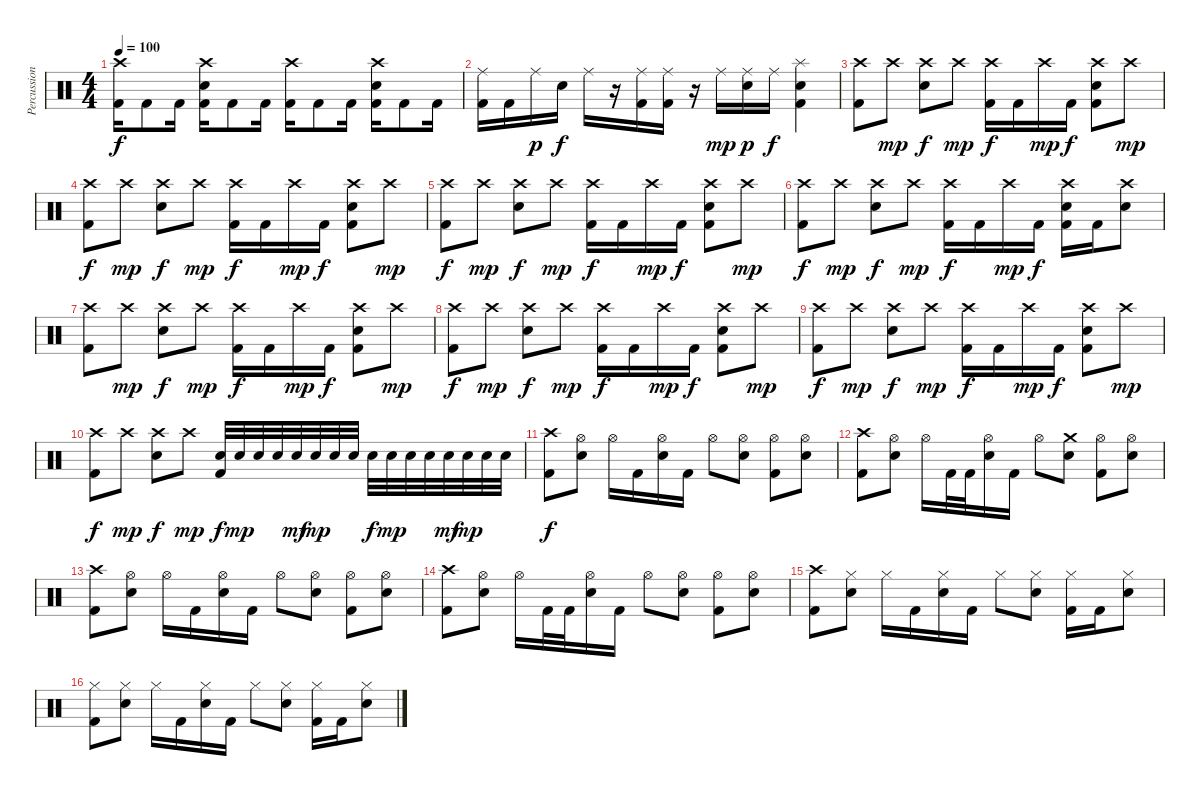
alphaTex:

\track ("Percussion" "Percussion") {instrument percussion}
\staff {score}
\articulation defaults
\ts (4 4)
\tempo 100
\clef neutral
\ks c
("Crash high (hit)" "Kick (hit) 2").16{dy f} "Kick (hit) 2".8 "Kick (hit) 2".16 ("Crash high (hit)" "Electric Snare (hit)" "Kick (hit) 2").16 "Kick (hit) 2".8 "Kick (hit) 2".16 ("Crash high (hit)" "Kick (hit) 2").16 "Kick (hit) 2".8 "Kick (hit) 2".16 ("Crash high (hit)" "Electric Snare (hit)" "Kick (hit) 2").16 "Kick (hit) 2".8 "Kick (hit) 2".16 |
("Ride (middle)" "Kick (hit) 2").16 "Kick (hit) 2".16 "Ride (middle)".16{dy p} "Electric Snare (hit)".16{dy f} "Ride (middle)".16 r.16 ("Ride (middle)" "Kick (hit) 2").16 ("Ride (middle)" "Kick (hit) 2").16 r.16 "Ride (middle)".16{dy mp} ("Ride (middle)" "Electric Snare (hit)").16{dy p} "Ride (middle)".16{dy f} ("Splash (hit)" "Electric Snare (hit)" "Kick (hit) 2").4 |
("Crash high (hit)" "Kick (hit) 2").8 "Crash high (hit)".8{dy mp} ("Crash high (hit)" "Electric Snare (hit)").8{dy f} "Crash high (hit)".8{dy mp} ("Crash high (hit)" "Kick (hit) 2").16{dy f} "Kick (hit) 2".16 "Crash high (hit)".16{dy mp} "Kick (hit) 2".16{dy f} ("Crash high (hit)" "Electric Snare (hit)" "Kick (hit) 2").8 "Crash high (hit)".8{dy mp} |
("Crash high (hit)" "Kick (hit) 2").8{dy f} "Crash high (hit)".8{dy mp} ("Crash high (hit)" "Electric Snare (hit)").8{dy f} "Crash high (hit)".8{dy mp} ("Crash high (hit)" "Kick (hit) 2").16{dy f} "Kick (hit) 2".16 "Crash high (hit)".16{dy mp} "Kick (hit) 2".16{dy f} ("Crash high (hit)" "Electric Snare (hit)" "Kick (hit) 2").8 "Crash high (hit)".8{dy mp} |
("Crash high (hit)" "Kick (hit) 2").8{dy f} "Crash high (hit)".8{dy mp} ("Crash high (hit)" "Electric Snare (hit)").8{dy f} "Crash high (hit)".8{dy mp} ("Crash high (hit)" "Kick (hit) 2").16{dy f} "Kick (hit) 2".16 "Crash high (hit)".16{dy mp} "Kick (hit) 2".16{dy f} ("Crash high (hit)" "Electric Snare (hit)" "Kick (hit) 2").8 "Crash high (hit)".8{dy mp} |
("Crash high (hit)" "Kick (hit) 2").8{dy f} "Crash high (hit)".8{dy mp} ("Crash high (hit)" "Electric Snare (hit)").8{dy f} "Crash high (hit)".8{dy mp} ("Crash high (hit)" "Kick (hit) 2").16{dy f} "Kick (hit) 2".16 "Crash high (hit)".16{dy mp} "Kick (hit) 2".16{dy f} ("Crash high (hit)" "Electric Snare (hit)" "Kick (hit) 2").16 "Kick (hit) 2".16 ("Crash high (hit)" "Electric Snare (hit)").8 |
("Crash high (hit)" "Kick (hit) 2").8 "Crash high (hit)".8{dy mp} ("Crash high (hit)" "Electric Snare (hit)").8{dy f} "Crash high (hit)".8{dy mp} ("Crash high (hit)" "Kick (hit) 2").16{dy f} "Kick (hit) 2".16 "Crash high (hit)".16{dy mp} "Kick (hit) 2".16{dy f} ("Crash high (hit)" "Electric Snare (hit)" "Kick (hit) 2").8 "Crash high (hit)".8{dy mp} |
("Crash high (hit)" "Kick (hit) 2").8{dy f} "Crash high (hit)".8{dy mp} ("Crash high (hit)" "Electric Snare (hit)").8{dy f} "Crash high (hit)".8{dy mp} ("Crash high (hit)" "Kick (hit) 2").16{dy f} "Kick (hit) 2".16 "Crash high (hit)".16{dy mp} "Kick (hit) 2".16{dy f} ("Crash high (hit)" "Electric Snare (hit)" "Kick (hit) 2").8 "Crash high (hit)".8{dy mp} |
("Crash high (hit)" "Kick (hit) 2").8{dy f} "Crash high (hit)".8{dy mp} ("Crash high (hit)" "Electric Snare (hit)").8{dy f} "Crash high (hit)".8{dy mp} ("Crash high (hit)" "Kick (hit) 2").16{dy f} "Kick (hit) 2".16 "Crash high (hit)".16{dy mp} "Kick (hit) 2".16{dy f} ("Crash high (hit)" "Electric Snare (hit)" "Kick (hit) 2").8 "Crash high (hit)".8{dy mp} |
("Crash high (hit)" "Kick (hit) 2").8{dy f} "Crash high (hit)".8{dy mp} ("Crash high (hit)" "Electric Snare (hit)").8{dy f} "Crash high (hit)".8{dy mp} ("Electric Snare (hit)" "Kick (hit) 2").32{dy f} "Electric Snare (hit)".32{dy mp} "Electric Snare (hit)".32 "Electric Snare (hit)".32 "Electric Snare (hit)".32{dy mf} "Electric Snare (hit)".32{dy mp} "Electric Snare (hit)".32 "Electric Snare (hit)".32 "Electric Snare (hit)".32{dy f} "Electric Snare (hit)".32{dy mp} "Electric Snare (hit)".32 "Electric Snare (hit)".32 "Electric Snare (hit)".32{dy mf} "Electric Snare (hit)".32{dy mp} "Electric Snare (hit)".32 "Electric Snare (hit)".32 |
("Crash high (hit)" "Kick (hit) 2").8{dy f} ("Hi-Hat (open)" "Electric Snare (hit)").8 "Hi-Hat (open)".16 "Kick (hit) 2".16 ("Hi-Hat (open)" "Electric Snare (hit)").16 "Kick (hit) 2".16 "Hi-Hat (open)".8 ("Hi-Hat (open)" "Electric Snare (hit)").8 ("Hi-Hat (open)" "Kick (hit) 2").8 ("Hi-Hat (open)" "Electric Snare (hit)").8 |
("Crash high (hit)" "Kick (hit) 2").8 ("Hi-Hat (open)" "Electric Snare (hit)").8 "Hi-Hat (open)".16 "Kick (hit) 2".32 "Kick (hit) 2".32 ("Hi-Hat (open)" "Electric Snare (hit)").16 "Kick (hit) 2".16 "Hi-Hat (open)".8 ("Crash medium (hit)" "Electric Snare (hit)").8 ("Hi-Hat (open)" "Kick (hit) 2").8 ("Hi-Hat (open)" "Electric Snare (hit)").8 |
("Crash high (hit)" "Kick (hit) 2").8 ("Hi-Hat (open)" "Electric Snare (hit)").8 "Hi-Hat (open)".16 "Kick (hit) 2".16 ("Hi-Hat (open)" "Electric Snare (hit)").16 "Kick (hit) 2".16 "Hi-Hat (open)".8 ("Hi-Hat (open)" "Electric Snare (hit)").8 ("Hi-Hat (open)" "Kick (hit) 2").8 ("Hi-Hat (open)" "Electric Snare (hit)").8 |
("Crash high (hit)" "Kick (hit) 2").8 ("Hi-Hat (open)" "Electric Snare (hit)").8 "Hi-Hat (open)".16 "Kick (hit) 2".32 "Kick (hit) 2".32 ("Hi-Hat (open)" "Electric Snare (hit)").16 "Kick (hit) 2".16 "Hi-Hat (open)".8 ("Hi-Hat (open)" "Electric Snare (hit)").8 ("Hi-Hat (open)" "Kick (hit) 2").8 ("Hi-Hat (open)" "Electric Snare (hit)").8 |
("Crash high (hit)" "Kick (hit) 2").8 ("Hi-Hat (closed)" "Electric Snare (hit)").8 "Hi-Hat (closed)".16 "Kick (hit) 2".16 ("Hi-Hat (closed)" "Electric Snare (hit)").16 "Kick (hit) 2".16 "Hi-Hat (closed)".8 ("Hi-Hat (closed)" "Electric Snare (hit)").8 ("Hi-Hat (closed)" "Kick (hit) 2").16 "Kick (hit) 2".16 ("Hi-Hat (closed)" "Electric Snare (hit)").8 |
("Hi-Hat (closed)" "Kick (hit) 2").8 ("Hi-Hat (closed)" "Electric Snare (hit)").8 "Hi-Hat (closed)".16 "Kick (hit) 2".16 ("Hi-Hat (closed)" "Electric Snare (hit)").16 "Kick (hit) 2".16 "Hi-Hat (closed)".8 ("Hi-Hat (closed)" "Electric Snare (hit)").8 ("Hi-Hat (closed)" "Kick (hit) 2").16 "Kick (hit) 2".16 ("Hi-Hat (closed)" "Electric Snare (hit)").8
